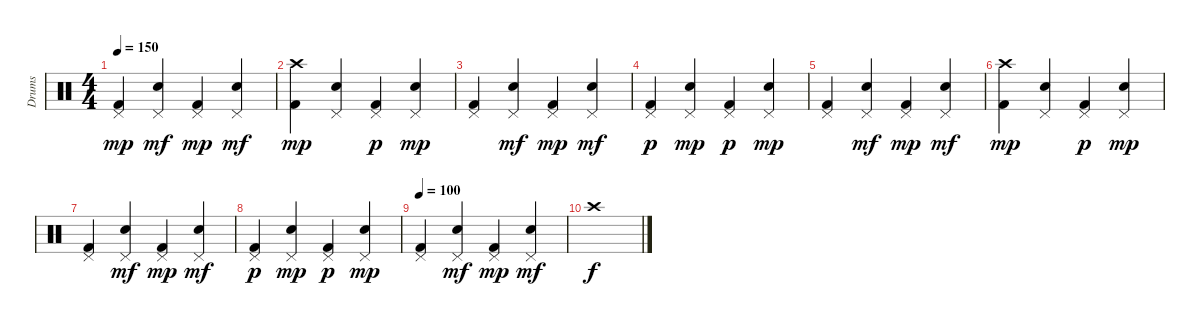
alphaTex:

\track ("Drums" "Drums") {instrument percussion}
\staff {score}
\articulation defaults
\ts (4 4)
\tempo 150
\clef neutral
\ks c
("Pedal Hi-Hat (hit)" "Kick (hit) 2").4{dy mp} ("Pedal Hi-Hat (hit)" "Electric Snare (hit)").4{dy mf} ("Pedal Hi-Hat (hit)" "Kick (hit) 2").4{dy mp} ("Pedal Hi-Hat (hit)" "Electric Snare (hit)").4{dy mf} |
("Crash high (hit)" "Kick (hit) 2").4{dy mp} ("Pedal Hi-Hat (hit)" "Electric Snare (hit)").4 ("Pedal Hi-Hat (hit)" "Kick (hit) 2").4{dy p} ("Pedal Hi-Hat (hit)" "Electric Snare (hit)").4{dy mp} |
("Pedal Hi-Hat (hit)" "Kick (hit) 2").4 ("Pedal Hi-Hat (hit)" "Electric Snare (hit)").4{dy mf} ("Pedal Hi-Hat (hit)" "Kick (hit) 2").4{dy mp} ("Pedal Hi-Hat (hit)" "Electric Snare (hit)").4{dy mf} |
("Pedal Hi-Hat (hit)" "Kick (hit) 2").4{dy p} ("Pedal Hi-Hat (hit)" "Electric Snare (hit)").4{dy mp} ("Pedal Hi-Hat (hit)" "Kick (hit) 2").4{dy p} ("Pedal Hi-Hat (hit)" "Electric Snare (hit)").4{dy mp} |
("Pedal Hi-Hat (hit)" "Kick (hit) 2").4 ("Pedal Hi-Hat (hit)" "Electric Snare (hit)").4{dy mf} ("Pedal Hi-Hat (hit)" "Kick (hit) 2").4{dy mp} ("Pedal Hi-Hat (hit)" "Electric Snare (hit)").4{dy mf} |
("Crash high (hit)" "Kick (hit) 2").4{dy mp} ("Pedal Hi-Hat (hit)" "Electric Snare (hit)").4 ("Pedal Hi-Hat (hit)" "Kick (hit) 2").4{dy p} ("Pedal Hi-Hat (hit)" "Electric Snare (hit)").4{dy mp} |
("Pedal Hi-Hat (hit)" "Kick (hit) 2").4 ("Pedal Hi-Hat (hit)" "Electric Snare (hit)").4{dy mf} ("Pedal Hi-Hat (hit)" "Kick (hit) 2").4{dy mp} ("Pedal Hi-Hat (hit)" "Electric Snare (hit)").4{dy mf} |
("Pedal Hi-Hat (hit)" "Kick (hit) 2").4{dy p} ("Pedal Hi-Hat (hit)" "Electric Snare (hit)").4{dy mp} ("Pedal Hi-Hat (hit)" "Kick (hit) 2").4{dy p} ("Pedal Hi-Hat (hit)" "Electric Snare (hit)").4{dy mp} |
\tempo 100
("Pedal Hi-Hat (hit)" "Kick (hit) 2").4 ("Pedal Hi-Hat (hit)" "Electric Snare (hit)").4{dy mf} ("Pedal Hi-Hat (hit)" "Kick (hit) 2").4{dy mp} ("Pedal Hi-Hat (hit)" "Electric Snare (hit)").4{dy mf} |
"Crash high (hit)".1{dy f}
